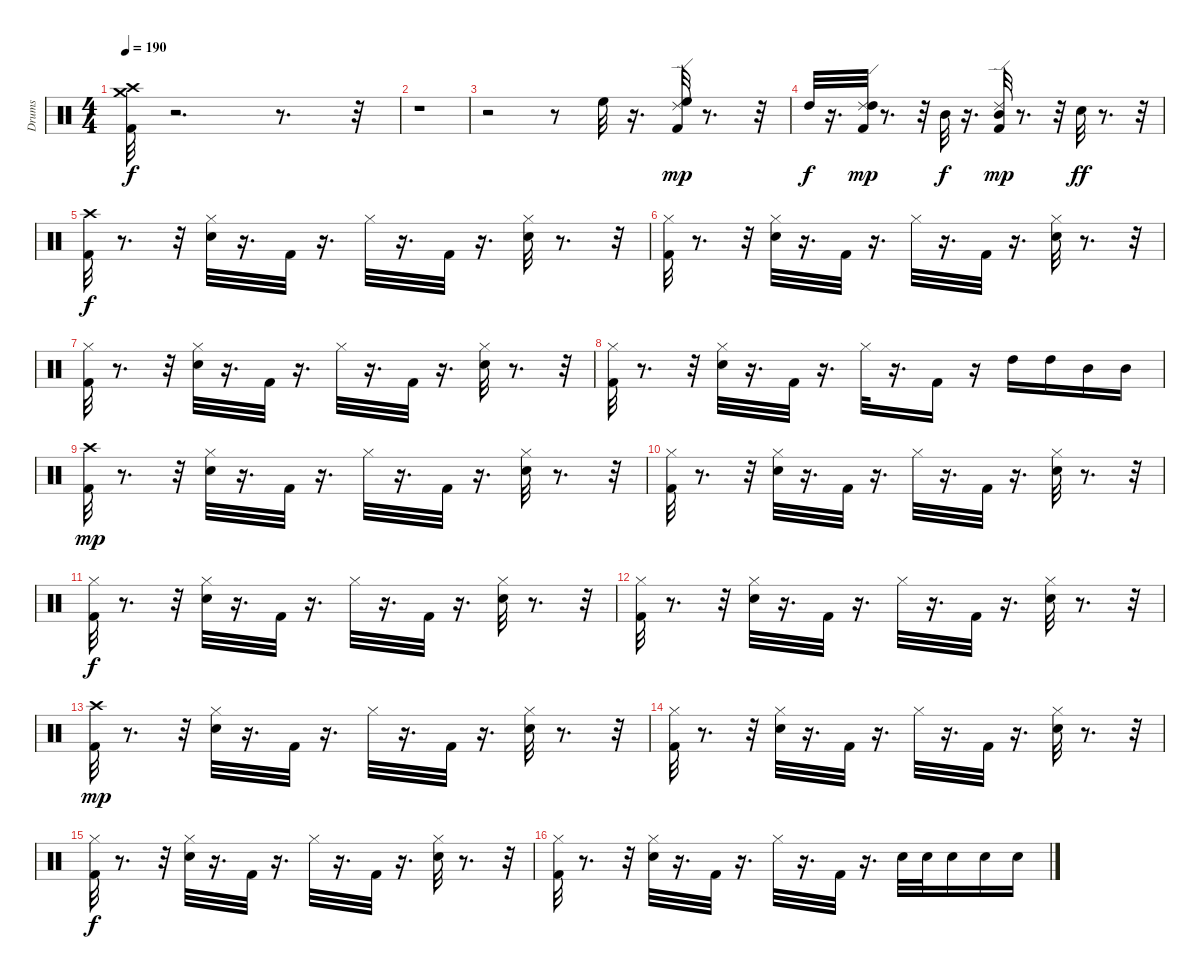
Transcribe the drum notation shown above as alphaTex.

\track ("Drums" "Drums") {instrument percussion}
\staff {score}
\articulation defaults
\ts (4 4)
\tempo 190
\clef neutral
\ks c
("Kick (hit) 2" "Crash high (hit)" "Crash medium (hit)").32{dy f} r.2{d} r.8{d} r.32 |
r.1 |
r.2 r.8 "High Floor Tom (hit)".32 r.16{d} ("Kick (hit) 2" "Ride (edge) 2" "High Floor Tom (hit)").32{dy mp} r.8{d} r.32 |
"High Tom (hit)".32{dy f} r.16{d} ("Kick (hit) 2" "Ride (edge) 2" "High Tom (hit)").32{dy mp} r.8{d} r.32 "Mid Tom (hit)".32{dy f} r.16{d} ("Kick (hit) 2" "Ride (edge) 2" "Mid Tom (hit)").32{dy mp} r.8{d} r.32 "Snare (hit) 2".32{dy ff} r.8{d} r.32 |
("Crash high (hit)" "Kick (hit) 2").32{dy f} r.8{d} r.32 ("Hi-Hat (closed)" "Snare (hit) 2").32 r.16{d} "Kick (hit) 2".32 r.16{d} "Hi-Hat (closed)".32 r.16{d} "Kick (hit) 2".32 r.16{d} ("Hi-Hat (closed)" "Snare (hit) 2").32 r.8{d} r.32 |
("Hi-Hat (closed)" "Kick (hit) 2").32 r.8{d} r.32 ("Snare (hit) 2" "Hi-Hat (closed)").32 r.16{d} "Kick (hit) 2".32 r.16{d} "Hi-Hat (closed)".32 r.16{d} "Kick (hit) 2".32 r.16{d} ("Snare (hit) 2" "Hi-Hat (closed)").32 r.8{d} r.32 |
("Kick (hit) 2" "Hi-Hat (closed)").32 r.8{d} r.32 ("Snare (hit) 2" "Hi-Hat (closed)").32 r.16{d} "Kick (hit) 2".32 r.16{d} "Hi-Hat (closed)".32 r.16{d} "Kick (hit) 2".32 r.16{d} ("Snare (hit) 2" "Hi-Hat (closed)").32 r.8{d} r.32 |
("Kick (hit) 2" "Hi-Hat (closed)").32 r.8{d} r.32 ("Snare (hit) 2" "Hi-Hat (closed)").32 r.16{d} "Kick (hit) 2".32 r.16{d} "Hi-Hat (closed)".32 r.16{d} "Kick (hit) 2".16 r.16 "High Tom (hit)".16 "High Tom (hit)".16 "Mid Tom (hit)".16 "Mid Tom (hit)".16 |
("Crash high (hit)" "Kick (hit) 2").32{dy mp} r.8{d} r.32 ("Hi-Hat (closed)" "Snare (hit) 2").32 r.16{d} "Kick (hit) 2".32 r.16{d} "Hi-Hat (closed)".32 r.16{d} "Kick (hit) 2".32 r.16{d} ("Hi-Hat (closed)" "Snare (hit) 2").32 r.8{d} r.32 |
("Hi-Hat (closed)" "Kick (hit) 2").32 r.8{d} r.32 ("Hi-Hat (closed)" "Snare (hit) 2").32 r.16{d} "Kick (hit) 2".32 r.16{d} "Hi-Hat (closed)".32 r.16{d} "Kick (hit) 2".32 r.16{d} ("Hi-Hat (closed)" "Snare (hit) 2").32 r.8{d} r.32 |
("Kick (hit) 2" "Hi-Hat (closed)").32{dy f} r.8{d} r.32 ("Snare (hit) 2" "Hi-Hat (closed)").32 r.16{d} "Kick (hit) 2".32 r.16{d} "Hi-Hat (closed)".32 r.16{d} "Kick (hit) 2".32 r.16{d} ("Snare (hit) 2" "Hi-Hat (closed)").32 r.8{d} r.32 |
("Kick (hit) 2" "Hi-Hat (closed)").32 r.8{d} r.32 ("Snare (hit) 2" "Hi-Hat (closed)").32 r.16{d} "Kick (hit) 2".32 r.16{d} "Hi-Hat (closed)".32 r.16{d} "Kick (hit) 2".32 r.16{d} ("Snare (hit) 2" "Hi-Hat (closed)").32 r.8{d} r.32 |
("Crash high (hit)" "Kick (hit) 2").32{dy mp} r.8{d} r.32 ("Hi-Hat (closed)" "Snare (hit) 2").32 r.16{d} "Kick (hit) 2".32 r.16{d} "Hi-Hat (closed)".32 r.16{d} "Kick (hit) 2".32 r.16{d} ("Hi-Hat (closed)" "Snare (hit) 2").32 r.8{d} r.32 |
("Hi-Hat (closed)" "Kick (hit) 2").32 r.8{d} r.32 ("Hi-Hat (closed)" "Snare (hit) 2").32 r.16{d} "Kick (hit) 2".32 r.16{d} "Hi-Hat (closed)".32 r.16{d} "Kick (hit) 2".32 r.16{d} ("Hi-Hat (closed)" "Snare (hit) 2").32 r.8{d} r.32 |
("Kick (hit) 2" "Hi-Hat (closed)").32{dy f} r.8{d} r.32 ("Snare (hit) 2" "Hi-Hat (closed)").32 r.16{d} "Kick (hit) 2".32 r.16{d} "Hi-Hat (closed)".32 r.16{d} "Kick (hit) 2".32 r.16{d} ("Snare (hit) 2" "Hi-Hat (closed)").32 r.8{d} r.32 |
("Kick (hit) 2" "Hi-Hat (closed)").32 r.8{d} r.32 ("Snare (hit) 2" "Hi-Hat (closed)").32 r.16{d} "Kick (hit) 2".32 r.16{d} "Hi-Hat (closed)".32 r.16{d} "Kick (hit) 2".32 r.16{d} "Snare (hit) 2".32 "Snare (hit) 2".32 "Snare (hit) 2".16 "Snare (hit) 2".16 "Snare (hit) 2".16
